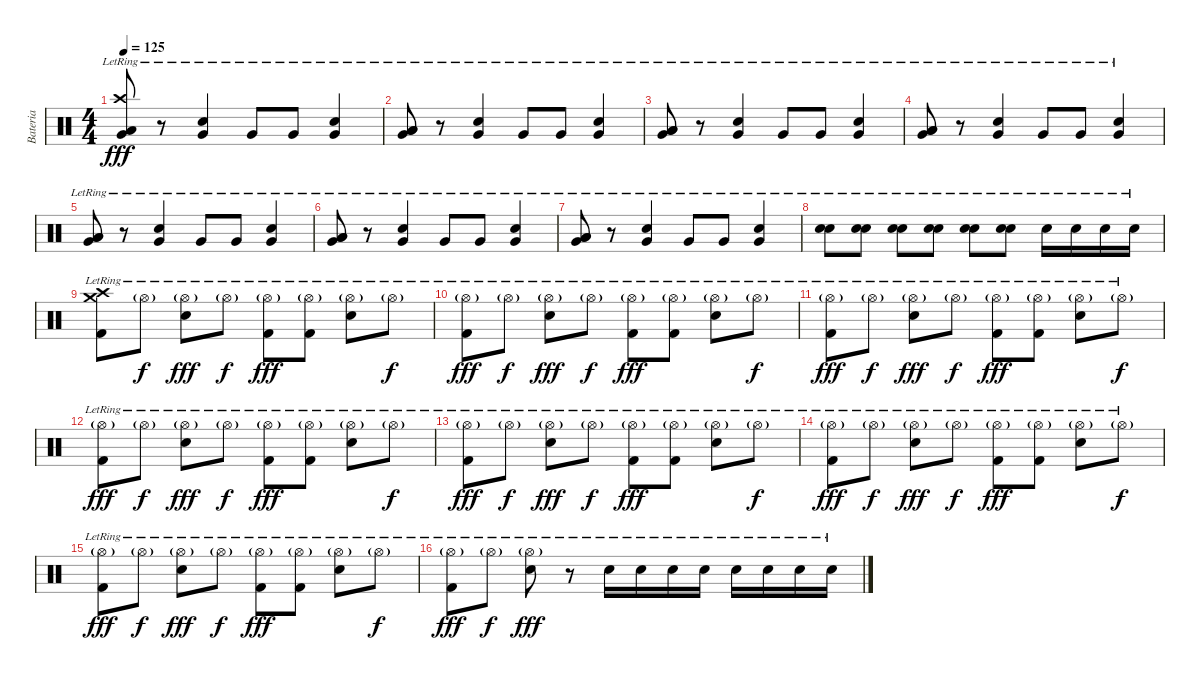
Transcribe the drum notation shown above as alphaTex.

\track ("Bateria" "Bateria") {instrument percussion}
\staff {score}
\articulation defaults
\ts (4 4)
\tempo 125
\clef neutral
\ks c
("Low Tom (hit)"{lr} "Crash high (hit)"{lr} "Very Low Tom (hit)"{lr}).8{dy fff} r.8 ("Snare (hit) 2"{lr} "Very Low Tom (hit)"{lr}).4 "Very Low Tom (hit)"{lr}.8 "Very Low Tom (hit)"{lr}.8 ("Snare (hit) 2"{lr} "Very Low Tom (hit)"{lr}).4 |
("Low Tom (hit)"{lr} "Low Floor Tom (hit)"{lr} "Very Low Tom (hit)"{lr}).8 r.8 ("Snare (hit) 2"{lr} "Very Low Tom (hit)"{lr}).4 "Very Low Tom (hit)"{lr}.8 "Very Low Tom (hit)"{lr}.8 ("Snare (hit) 2"{lr} "Very Low Tom (hit)"{lr}).4 |
("Low Tom (hit)"{lr} "Low Floor Tom (hit)"{lr} "Very Low Tom (hit)"{lr}).8 r.8 ("Snare (hit) 2"{lr} "Very Low Tom (hit)"{lr}).4 "Very Low Tom (hit)"{lr}.8 "Very Low Tom (hit)"{lr}.8 ("Snare (hit) 2"{lr} "Very Low Tom (hit)"{lr}).4 |
("Low Tom (hit)"{lr} "Low Floor Tom (hit)"{lr} "Very Low Tom (hit)"{lr}).8 r.8 ("Snare (hit) 2"{lr} "Very Low Tom (hit)"{lr}).4 "Very Low Tom (hit)"{lr}.8 "Very Low Tom (hit)"{lr}.8 ("Snare (hit) 2"{lr} "Very Low Tom (hit)"{lr}).4 |
("Low Tom (hit)"{lr} "Low Floor Tom (hit)"{lr} "Very Low Tom (hit)"{lr}).8 r.8 ("Snare (hit) 2"{lr} "Very Low Tom (hit)"{lr}).4 "Very Low Tom (hit)"{lr}.8 "Very Low Tom (hit)"{lr}.8 ("Snare (hit) 2"{lr} "Very Low Tom (hit)"{lr}).4 |
("Low Tom (hit)"{lr} "Low Floor Tom (hit)"{lr} "Very Low Tom (hit)"{lr}).8 r.8 ("Snare (hit) 2"{lr} "Very Low Tom (hit)"{lr}).4 "Very Low Tom (hit)"{lr}.8 "Very Low Tom (hit)"{lr}.8 ("Snare (hit) 2"{lr} "Very Low Tom (hit)"{lr}).4 |
("Low Tom (hit)"{lr} "Low Floor Tom (hit)"{lr} "Very Low Tom (hit)"{lr}).8 r.8 ("Snare (hit) 2"{lr} "Very Low Tom (hit)"{lr}).4 "Very Low Tom (hit)"{lr}.8 "Very Low Tom (hit)"{lr}.8 ("Snare (hit) 2"{lr} "Very Low Tom (hit)"{lr}).4 |
("Snare (hit) 2"{lr} "Snare (hit) 2"{lr}).8 ("Snare (hit) 2"{lr} "Snare (hit) 2"{lr}).8 ("Snare (hit) 2"{lr} "Snare (hit) 2"{lr}).8 ("Snare (hit) 2"{lr} "Snare (hit) 2"{lr}).8 ("Snare (hit) 2"{lr} "Snare (hit) 2"{lr}).8 ("Snare (hit) 2"{lr} "Snare (hit) 2"{lr}).8 "Snare (hit) 2"{lr}.16 "Snare (hit) 2"{lr}.16 "Snare (hit) 2"{lr}.16 "Snare (hit) 2"{lr}.16 |
("Crash medium (hit)"{lr} "Kick (hit) 2"{lr} "Crash high (hit)"{lr}).8 "Hi-Hat (open)"{g lr}.8{dy f} ("Hi-Hat (open)"{g lr} "Snare (hit) 2"{lr}).8{dy fff} "Hi-Hat (open)"{g lr}.8{dy f} ("Hi-Hat (open)"{g lr} "Kick (hit) 2"{lr}).8{dy fff} ("Hi-Hat (open)"{g lr} "Kick (hit) 2"{lr}).8 ("Hi-Hat (open)"{g lr} "Snare (hit) 2"{lr}).8 "Hi-Hat (open)"{g lr}.8{dy f} |
("Hi-Hat (open)"{g lr} "Kick (hit) 2"{lr}).8{dy fff} "Hi-Hat (open)"{g lr}.8{dy f} ("Hi-Hat (open)"{g lr} "Snare (hit) 2"{lr}).8{dy fff} "Hi-Hat (open)"{g lr}.8{dy f} ("Hi-Hat (open)"{g lr} "Kick (hit) 2"{lr}).8{dy fff} ("Hi-Hat (open)"{g lr} "Kick (hit) 2"{lr}).8 ("Hi-Hat (open)"{g lr} "Snare (hit) 2"{lr}).8 "Hi-Hat (open)"{g lr}.8{dy f} |
("Hi-Hat (open)"{g lr} "Kick (hit) 2"{lr}).8{dy fff} "Hi-Hat (open)"{g lr}.8{dy f} ("Hi-Hat (open)"{g lr} "Snare (hit) 2"{lr}).8{dy fff} "Hi-Hat (open)"{g lr}.8{dy f} ("Hi-Hat (open)"{g lr} "Kick (hit) 2"{lr}).8{dy fff} ("Hi-Hat (open)"{g lr} "Kick (hit) 2"{lr}).8 ("Hi-Hat (open)"{g lr} "Snare (hit) 2"{lr}).8 "Hi-Hat (open)"{g lr}.8{dy f} |
("Hi-Hat (open)"{g lr} "Kick (hit) 2"{lr}).8{dy fff} "Hi-Hat (open)"{g lr}.8{dy f} ("Hi-Hat (open)"{g lr} "Snare (hit) 2"{lr}).8{dy fff} "Hi-Hat (open)"{g lr}.8{dy f} ("Hi-Hat (open)"{g lr} "Kick (hit) 2"{lr}).8{dy fff} ("Hi-Hat (open)"{g lr} "Kick (hit) 2"{lr}).8 ("Hi-Hat (open)"{g lr} "Snare (hit) 2"{lr}).8 "Hi-Hat (open)"{g lr}.8{dy f} |
("Hi-Hat (open)"{g lr} "Kick (hit) 2"{lr}).8{dy fff} "Hi-Hat (open)"{g lr}.8{dy f} ("Hi-Hat (open)"{g lr} "Snare (hit) 2"{lr}).8{dy fff} "Hi-Hat (open)"{g lr}.8{dy f} ("Hi-Hat (open)"{g lr} "Kick (hit) 2"{lr}).8{dy fff} ("Hi-Hat (open)"{g lr} "Kick (hit) 2"{lr}).8 ("Hi-Hat (open)"{g lr} "Snare (hit) 2"{lr}).8 "Hi-Hat (open)"{g lr}.8{dy f} |
("Hi-Hat (open)"{g lr} "Kick (hit) 2"{lr}).8{dy fff} "Hi-Hat (open)"{g lr}.8{dy f} ("Hi-Hat (open)"{g lr} "Snare (hit) 2"{lr}).8{dy fff} "Hi-Hat (open)"{g lr}.8{dy f} ("Hi-Hat (open)"{g lr} "Kick (hit) 2"{lr}).8{dy fff} ("Hi-Hat (open)"{g lr} "Kick (hit) 2"{lr}).8 ("Hi-Hat (open)"{g lr} "Snare (hit) 2"{lr}).8 "Hi-Hat (open)"{g lr}.8{dy f} |
("Hi-Hat (open)"{g lr} "Kick (hit) 2"{lr}).8{dy fff} "Hi-Hat (open)"{g lr}.8{dy f} ("Hi-Hat (open)"{g lr} "Snare (hit) 2"{lr}).8{dy fff} "Hi-Hat (open)"{g lr}.8{dy f} ("Hi-Hat (open)"{g lr} "Kick (hit) 2"{lr}).8{dy fff} ("Hi-Hat (open)"{g lr} "Kick (hit) 2"{lr}).8 ("Hi-Hat (open)"{g lr} "Snare (hit) 2"{lr}).8 "Hi-Hat (open)"{g lr}.8{dy f} |
("Hi-Hat (open)"{g lr} "Kick (hit) 2"{lr}).8{dy fff} "Hi-Hat (open)"{g lr}.8{dy f} ("Hi-Hat (open)"{g lr} "Snare (hit) 2"{lr}).8{dy fff} r.8 "Snare (hit) 2"{lr}.16 "Snare (hit) 2"{lr}.16 "Snare (hit) 2"{lr}.16 "Snare (hit) 2"{lr}.16 "Snare (hit) 2"{lr}.16 "Snare (hit) 2"{lr}.16 "Snare (hit) 2"{lr}.16 "Snare (hit) 2"{lr}.16
